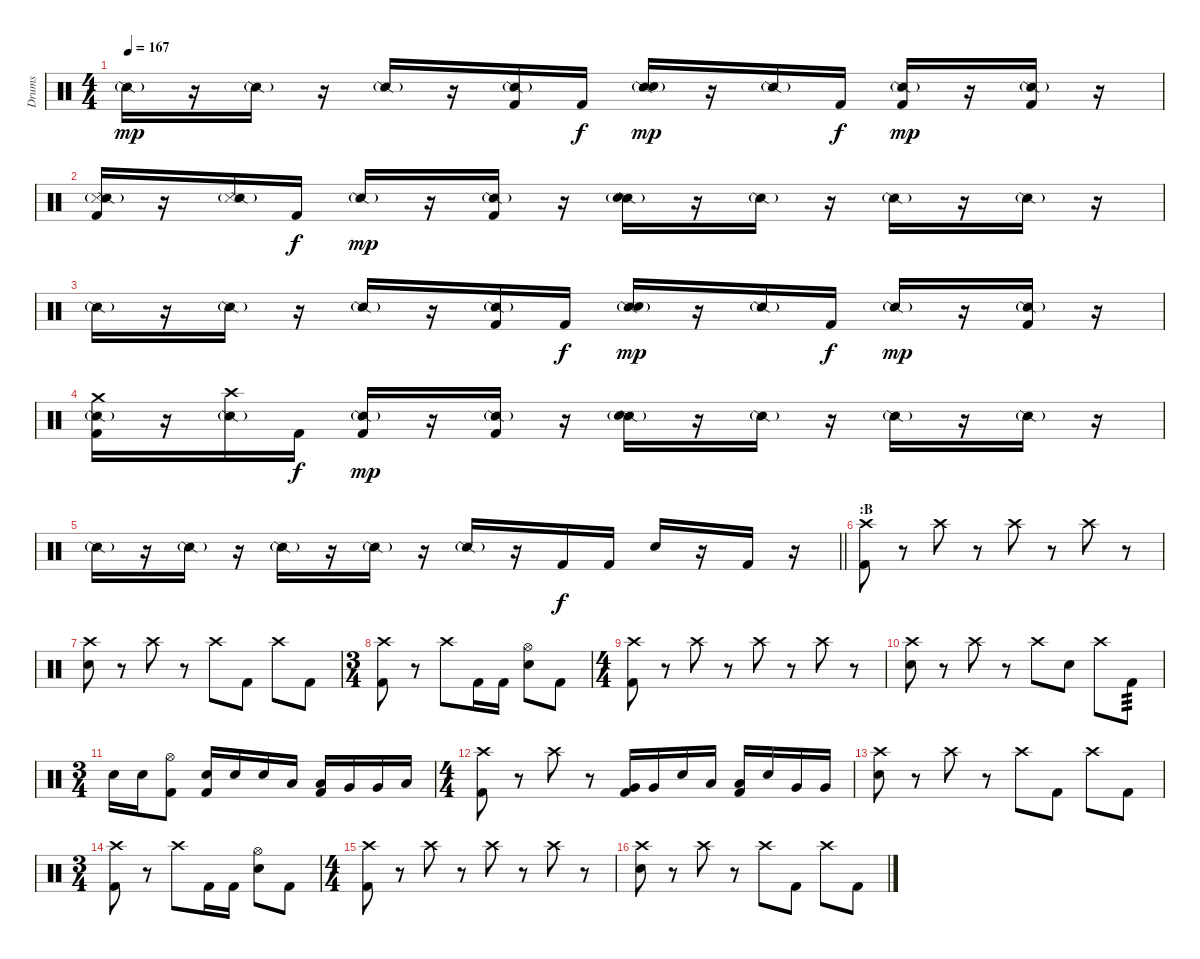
\track ("Drums" "Drums") {instrument percussion}
\staff {score}
\articulation defaults
\ts (4 4)
\tempo 167
\clef neutral
\ks c "Snare (side stick) 2"{g}.16{dy mp}
r.16 "Snare (side stick) 2"{g}.16 r.16 "Snare (side stick) 2"{g}.16 r.16 ("Snare (side stick) 2"{g} "Kick (hit) 2").16 "Kick (hit) 2".16{dy f} ("Snare (side stick) 2"{g} "Electric Snare (hit)").16{dy mp} r.16 "Snare (side stick) 2"{g}.16 "Kick (hit) 2".16{dy f} ("Snare (side stick) 2"{g} "Kick (hit) 2").16{dy mp} r.16 ("Snare (side stick) 2"{g} "Kick (hit) 2").16 r.16 |
("Snare (side stick) 3" "Snare (side stick) 2"{g} "Kick (hit) 2").16 r.16 ("Snare (side stick) 3" "Snare (side stick) 2"{g}).16 "Kick (hit) 2".16{dy f} "Snare (side stick) 2"{g}.16{dy mp} r.16 ("Snare (side stick) 2"{g} "Kick (hit) 2").16 r.16 ("Snare (side stick) 2"{g} "Electric Snare (hit)").16 r.16 "Snare (side stick) 2"{g}.16 r.16 "Snare (side stick) 2"{g}.16 r.16 "Snare (side stick) 2"{g}.16 r.16 |
"Snare (side stick) 2"{g}.16 r.16 "Snare (side stick) 2"{g}.16 r.16 "Snare (side stick) 2"{g}.16 r.16 ("Snare (side stick) 2"{g} "Kick (hit) 2").16 "Kick (hit) 2".16{dy f} ("Snare (side stick) 2"{g} "Electric Snare (hit)").16{dy mp} r.16 "Snare (side stick) 2"{g}.16 "Kick (hit) 2".16{dy f} "Snare (side stick) 2"{g}.16{dy mp} r.16 ("Snare (side stick) 2"{g} "Kick (hit) 2").16 r.16 |
("Crash medium (hit)" "Snare (side stick) 2"{g} "Kick (hit) 2").16 r.16 ("Crash high (hit)" "Snare (side stick) 2"{g}).16 "Kick (hit) 2".16{dy f} ("Snare (side stick) 2"{g} "Kick (hit) 2").16{dy mp} r.16 ("Snare (side stick) 2"{g} "Kick (hit) 2").16 r.16 ("Snare (side stick) 2"{g} "Electric Snare (hit)").16 r.16 "Snare (side stick) 2"{g}.16 r.16 "Snare (side stick) 2"{g}.16 r.16 "Snare (side stick) 2"{g}.16 r.16 |
\barLineRight lightlight "Snare (side stick) 2"{g}.16
r.16 "Snare (side stick) 2"{g}.16 r.16 "Snare (side stick) 2"{g}.16 r.16 "Snare (side stick) 2"{g}.16 r.16 "Snare (side stick) 2"{g}.16 r.16 "Kick (hit) 2".16{dy f} "Kick (hit) 2".16 "Electric Snare (hit)".16 r.16 "Kick (hit) 2".16 r.16 |
\section ("" ":B")
("Crash high (hit)" "Kick (hit) 2").8 r.8 "Crash high (hit)".8 r.8 "Crash high (hit)".8 r.8 "Crash high (hit)".8 r.8 |
("Crash high (hit)" "Electric Snare (hit)").8 r.8 "Crash high (hit)".8 r.8 "Crash high (hit)".8 "Kick (hit) 2".8 "Crash high (hit)".8 "Kick (hit) 2".8 |
\ts (3 4)
("Crash high (hit)" "Kick (hit) 2").8 r.8 "Crash high (hit)".8 "Kick (hit) 2".16 "Kick (hit) 2".16 ("Hi-Hat (open)" "Electric Snare (hit)").8 "Kick (hit) 2".8 |
\ts (4 4)
("Crash high (hit)" "Kick (hit) 2").8 r.8 "Crash high (hit)".8 r.8 "Crash high (hit)".8 r.8 "Crash high (hit)".8 r.8 |
("Crash high (hit)" "Electric Snare (hit)").8 r.8 "Crash high (hit)".8 r.8 "Crash high (hit)".8 "Electric Snare (hit)".8 "Crash high (hit)".8 "Kick (hit) 2".8{tp 3} |
\ts (3 4)
"Electric Snare (hit)".16 "Electric Snare (hit)".16 ("Hi-Hat (open)" "Kick (hit) 2").8 ("Electric Snare (hit)" "Kick (hit) 2").16 "Electric Snare (hit)".16 "Electric Snare (hit)".16 "Low Tom (hit)".16 ("Low Tom (hit)" "Kick (hit) 2").16 "Very Low Tom (hit)".16 "Very Low Tom (hit)".16 "Low Floor Tom (hit)".16 |
\ts (4 4)
("Crash high (hit)" "Kick (hit) 2").8 r.8 "Crash high (hit)".8 r.8 ("Very Low Tom (hit)" "Kick (hit) 2").16 "Very Low Tom (hit)".16 "Electric Snare (hit)".16 "Low Tom (hit)".16 ("Low Tom (hit)" "Kick (hit) 2").16 "Electric Snare (hit)".16 "Very Low Tom (hit)".16 "Very Low Tom (hit)".16 |
("Crash high (hit)" "Electric Snare (hit)").8 r.8 "Crash high (hit)".8 r.8 "Crash high (hit)".8 "Kick (hit) 2".8 "Crash high (hit)".8 "Kick (hit) 2".8 |
\ts (3 4)
("Crash high (hit)" "Kick (hit) 2").8 r.8 "Crash high (hit)".8 "Kick (hit) 2".16 "Kick (hit) 2".16 ("Hi-Hat (open)" "Electric Snare (hit)").8 "Kick (hit) 2".8 |
\ts (4 4)
("Crash high (hit)" "Kick (hit) 2").8 r.8 "Crash high (hit)".8 r.8 "Crash high (hit)".8 r.8 "Crash high (hit)".8 r.8 |
("Crash high (hit)" "Electric Snare (hit)").8 r.8 "Crash high (hit)".8 r.8 "Crash high (hit)".8 "Kick (hit) 2".8 "Crash high (hit)".8 "Kick (hit) 2".8
